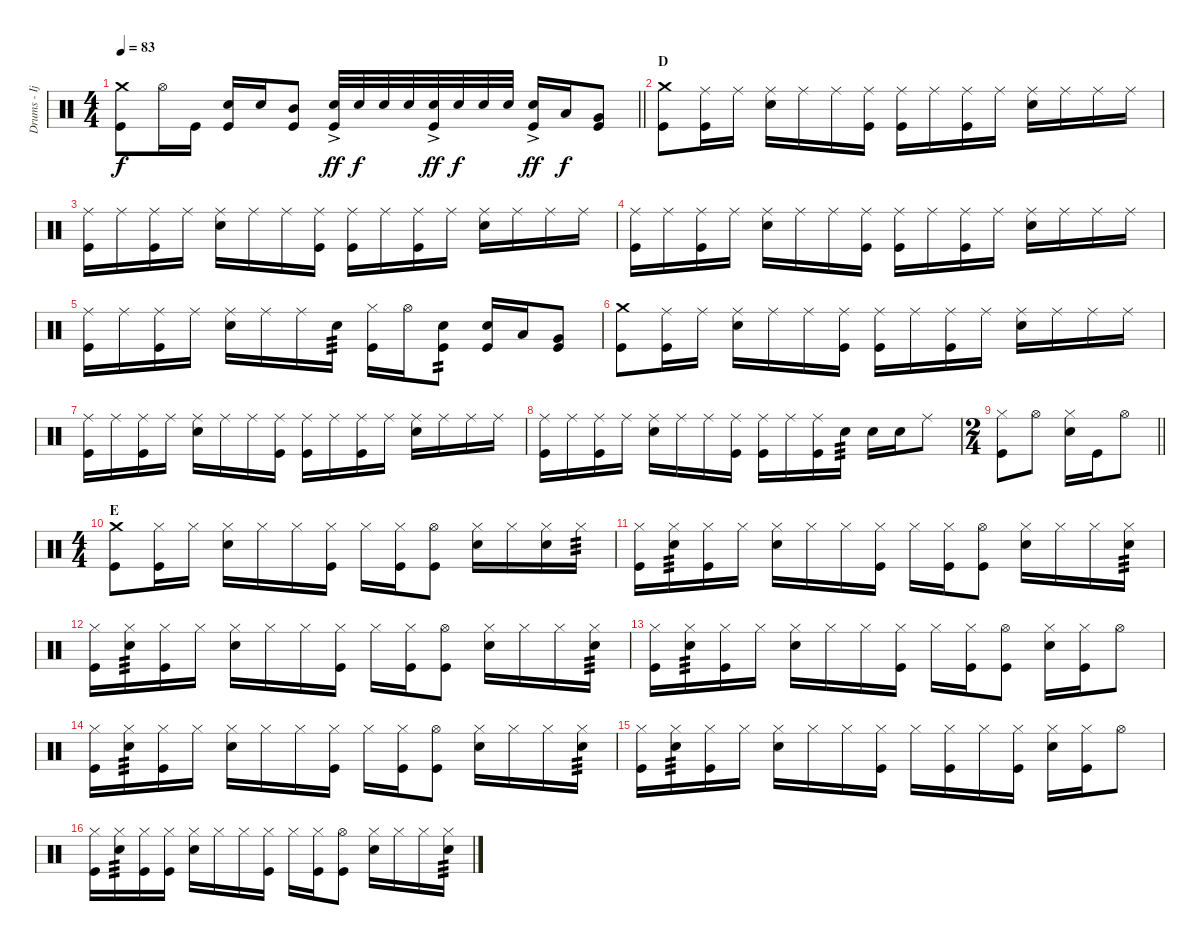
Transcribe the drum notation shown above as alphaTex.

\track ("Drums - Ijichi" "Drums - Ij") {instrument percussion}
\staff {score}
\articulation defaults
\ts (4 4)
\tempo 83
\clef neutral
\barLineRight lightlight
\ks c
("Crash medium (hit)" "Kick (hit)").8{dy f} "Hi-Hat (open)".16 "Kick (hit)".16 ("Electric Snare (hit)" "Kick (hit)").16 "Electric Snare (hit)".16 ("Mid Tom (hit)" "Kick (hit)").8 ("Electric Snare (hit)"{ac} "Kick (hit)").32{dy ff} "Electric Snare (hit)".32{dy f} "Electric Snare (hit)".32 "Electric Snare (hit)".32 ("Electric Snare (hit)"{ac} "Kick (hit)").32{dy ff} "Electric Snare (hit)".32{dy f} "Electric Snare (hit)".32 "Electric Snare (hit)".32 ("Electric Snare (hit)"{ac} "Kick (hit)").16{dy ff} "Low Tom (hit)".16{dy f} ("Very Low Tom (hit)" "Kick (hit)").8 |
\section ("" "D")
("Crash medium (hit)" "Kick (hit)").8 ("Ride (middle)" "Kick (hit)").16 "Ride (middle)".16 ("Ride (middle)" "Electric Snare (hit)").16 "Ride (middle)".16 "Ride (middle)".16 ("Ride (middle)" "Kick (hit)").16 ("Ride (middle)" "Kick (hit)").16 "Ride (middle)".16 ("Ride (middle)" "Kick (hit)").16 "Ride (middle)".16 ("Ride (middle)" "Electric Snare (hit)").16 "Ride (middle)".16 "Ride (middle)".16 "Ride (middle)".16 |
("Ride (middle)" "Kick (hit)").16 "Ride (middle)".16 ("Ride (middle)" "Kick (hit)").16 "Ride (middle)".16 ("Ride (middle)" "Electric Snare (hit)").16 "Ride (middle)".16 "Ride (middle)".16 ("Ride (middle)" "Kick (hit)").16 ("Ride (middle)" "Kick (hit)").16 "Ride (middle)".16 ("Ride (middle)" "Kick (hit)").16 "Ride (middle)".16 ("Ride (middle)" "Electric Snare (hit)").16 "Ride (middle)".16 "Ride (middle)".16 "Ride (middle)".16 |
("Ride (middle)" "Kick (hit)").16 "Ride (middle)".16 ("Ride (middle)" "Kick (hit)").16 "Ride (middle)".16 ("Ride (middle)" "Electric Snare (hit)").16 "Ride (middle)".16 "Ride (middle)".16 ("Ride (middle)" "Kick (hit)").16 ("Ride (middle)" "Kick (hit)").16 "Ride (middle)".16 ("Ride (middle)" "Kick (hit)").16 "Ride (middle)".16 ("Ride (middle)" "Electric Snare (hit)").16 "Ride (middle)".16 "Ride (middle)".16 "Ride (middle)".16 |
("Ride (middle)" "Kick (hit)").16 "Ride (middle)".16 ("Ride (middle)" "Kick (hit)").16 "Ride (middle)".16 ("Ride (middle)" "Electric Snare (hit)").16 "Ride (middle)".16 "Ride (middle)".16 "Electric Snare (hit)".16{tp 3} ("Hi-Hat (closed)" "Kick (hit)").16 "Hi-Hat (open)".16 ("Electric Snare (hit)" "Kick (hit)").8{tp 2} ("Electric Snare (hit)" "Kick (hit)").16 "Low Tom (hit)".16 ("Very Low Tom (hit)" "Kick (hit)").8 |
("Crash medium (hit)" "Kick (hit)").8 ("Ride (middle)" "Kick (hit)").16 "Ride (middle)".16 ("Ride (middle)" "Electric Snare (hit)").16 "Ride (middle)".16 "Ride (middle)".16 ("Ride (middle)" "Kick (hit)").16 ("Ride (middle)" "Kick (hit)").16 "Ride (middle)".16 ("Ride (middle)" "Kick (hit)").16 "Ride (middle)".16 ("Ride (middle)" "Electric Snare (hit)").16 "Ride (middle)".16 "Ride (middle)".16 "Ride (middle)".16 |
("Ride (middle)" "Kick (hit)").16 "Ride (middle)".16 ("Ride (middle)" "Kick (hit)").16 "Ride (middle)".16 ("Ride (middle)" "Electric Snare (hit)").16 "Ride (middle)".16 "Ride (middle)".16 ("Ride (middle)" "Kick (hit)").16 ("Ride (middle)" "Kick (hit)").16 "Ride (middle)".16 ("Ride (middle)" "Kick (hit)").16 "Ride (middle)".16 ("Ride (middle)" "Electric Snare (hit)").16 "Ride (middle)".16 "Ride (middle)".16 "Ride (middle)".16 |
("Ride (middle)" "Kick (hit)").16 "Ride (middle)".16 ("Ride (middle)" "Kick (hit)").16 "Ride (middle)".16 ("Ride (middle)" "Electric Snare (hit)").16 "Ride (middle)".16 "Ride (middle)".16 ("Ride (middle)" "Kick (hit)").16 ("Ride (middle)" "Kick (hit)").16 "Ride (middle)".16 ("Ride (middle)" "Kick (hit)").16 "Electric Snare (hit)".16{tp 3} "Electric Snare (hit)".16 "Electric Snare (hit)".16 "Ride (middle)".8 |
\ts (2 4)
\barLineRight lightlight
("Hi-Hat (closed)" "Kick (hit)").8 "Hi-Hat (open)".8 ("Hi-Hat (closed)" "Electric Snare (hit)").16 "Kick (hit)".16 "Hi-Hat (open)".8 |
\ts (4 4)
\section ("" "E")
("Crash medium (hit)" "Kick (hit)").8 ("Hi-Hat (closed)" "Kick (hit)").16 "Hi-Hat (closed)".16 ("Hi-Hat (closed)" "Electric Snare (hit)").16 "Hi-Hat (closed)".16 "Hi-Hat (closed)".16 ("Hi-Hat (closed)" "Kick (hit)").16 "Hi-Hat (closed)".16 ("Hi-Hat (closed)" "Kick (hit)").16 ("Hi-Hat (open)" "Kick (hit)").8 ("Hi-Hat (closed)" "Electric Snare (hit)").16 "Hi-Hat (closed)".16 ("Hi-Hat (closed)" "Electric Snare (hit)").16 "Hi-Hat (closed)".16{tp 3} |
("Hi-Hat (closed)" "Kick (hit)").16 ("Hi-Hat (closed)" "Electric Snare (hit)").16{tp 3} ("Hi-Hat (closed)" "Kick (hit)").16 "Hi-Hat (closed)".16 ("Hi-Hat (closed)" "Electric Snare (hit)").16 "Hi-Hat (closed)".16 "Hi-Hat (closed)".16 ("Hi-Hat (closed)" "Kick (hit)").16 "Hi-Hat (closed)".16 ("Hi-Hat (closed)" "Kick (hit)").16 ("Hi-Hat (open)" "Kick (hit)").8 ("Hi-Hat (closed)" "Electric Snare (hit)").16 "Hi-Hat (closed)".16 "Hi-Hat (closed)".16 ("Hi-Hat (closed)" "Electric Snare (hit)").16{tp 3} |
("Hi-Hat (closed)" "Kick (hit)").16 ("Hi-Hat (closed)" "Electric Snare (hit)").16{tp 3} ("Hi-Hat (closed)" "Kick (hit)").16 "Hi-Hat (closed)".16 ("Hi-Hat (closed)" "Electric Snare (hit)").16 "Hi-Hat (closed)".16 "Hi-Hat (closed)".16 ("Hi-Hat (closed)" "Kick (hit)").16 "Hi-Hat (closed)".16 ("Hi-Hat (closed)" "Kick (hit)").16 ("Hi-Hat (open)" "Kick (hit)").8 ("Hi-Hat (closed)" "Electric Snare (hit)").16 "Hi-Hat (closed)".16 "Hi-Hat (closed)".16 ("Hi-Hat (closed)" "Electric Snare (hit)").16{tp 3} |
("Hi-Hat (closed)" "Kick (hit)").16 ("Hi-Hat (closed)" "Electric Snare (hit)").16{tp 3} ("Hi-Hat (closed)" "Kick (hit)").16 "Hi-Hat (closed)".16 ("Hi-Hat (closed)" "Electric Snare (hit)").16 "Hi-Hat (closed)".16 "Hi-Hat (closed)".16 ("Hi-Hat (closed)" "Kick (hit)").16 "Hi-Hat (closed)".16 ("Hi-Hat (closed)" "Kick (hit)").16 ("Hi-Hat (open)" "Kick (hit)").8 ("Hi-Hat (closed)" "Electric Snare (hit)").16 ("Hi-Hat (closed)" "Kick (hit)").16 "Hi-Hat (open)".8 |
("Hi-Hat (closed)" "Kick (hit)").16 ("Hi-Hat (closed)" "Electric Snare (hit)").16{tp 3} ("Hi-Hat (closed)" "Kick (hit)").16 "Hi-Hat (closed)".16 ("Hi-Hat (closed)" "Electric Snare (hit)").16 "Hi-Hat (closed)".16 "Hi-Hat (closed)".16 ("Hi-Hat (closed)" "Kick (hit)").16 "Hi-Hat (closed)".16 ("Hi-Hat (closed)" "Kick (hit)").16 ("Hi-Hat (open)" "Kick (hit)").8 ("Hi-Hat (closed)" "Electric Snare (hit)").16 "Hi-Hat (closed)".16 "Hi-Hat (closed)".16 ("Hi-Hat (closed)" "Electric Snare (hit)").16{tp 3} |
("Hi-Hat (closed)" "Kick (hit)").16 ("Hi-Hat (closed)" "Electric Snare (hit)").16{tp 3} ("Hi-Hat (closed)" "Kick (hit)").16 "Hi-Hat (closed)".16 ("Hi-Hat (closed)" "Electric Snare (hit)").16 "Hi-Hat (closed)".16 "Hi-Hat (closed)".16 ("Hi-Hat (closed)" "Kick (hit)").16 "Hi-Hat (closed)".16 ("Hi-Hat (closed)" "Kick (hit)").16 "Hi-Hat (closed)".16 ("Hi-Hat (closed)" "Kick (hit)").16 ("Hi-Hat (closed)" "Electric Snare (hit)").16 ("Hi-Hat (closed)" "Kick (hit)").16 "Hi-Hat (open)".8 |
("Hi-Hat (closed)" "Kick (hit)").16 ("Hi-Hat (closed)" "Electric Snare (hit)").16{tp 3} ("Hi-Hat (closed)" "Kick (hit)").16 ("Hi-Hat (closed)" "Kick (hit)").16 ("Hi-Hat (closed)" "Electric Snare (hit)").16 "Hi-Hat (closed)".16 "Hi-Hat (closed)".16 ("Hi-Hat (closed)" "Kick (hit)").16 "Hi-Hat (closed)".16 ("Hi-Hat (closed)" "Kick (hit)").16 ("Hi-Hat (open)" "Kick (hit)").8 ("Hi-Hat (closed)" "Electric Snare (hit)").16 "Hi-Hat (closed)".16 "Hi-Hat (closed)".16 ("Hi-Hat (closed)" "Electric Snare (hit)").16{tp 3}
